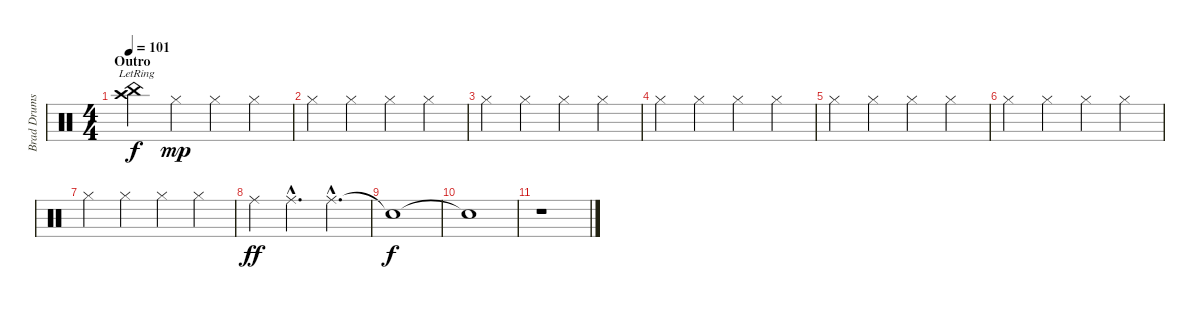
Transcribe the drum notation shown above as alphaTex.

\track ("Brad Drums" "Brad Drums") {instrument percussion}
\staff {score}
\articulation defaults
\ts (4 4)
\section ("" "Outro")
\tempo 101
\clef neutral
\ks c
("Crash high (hit)"{lr} "China (hit)"{lr}).4{dy f} "Hi-Hat (closed)".4{dy mp} "Hi-Hat (closed)".4 "Hi-Hat (closed)".4 |
"Hi-Hat (closed)".4 "Hi-Hat (closed)".4 "Hi-Hat (closed)".4 "Hi-Hat (closed)".4 |
"Hi-Hat (closed)".4 "Hi-Hat (closed)".4 "Hi-Hat (closed)".4 "Hi-Hat (closed)".4 |
"Hi-Hat (closed)".4 "Hi-Hat (closed)".4 "Hi-Hat (closed)".4 "Hi-Hat (closed)".4 |
"Hi-Hat (closed)".4 "Hi-Hat (closed)".4 "Hi-Hat (closed)".4 "Hi-Hat (closed)".4 |
"Hi-Hat (closed)".4 "Hi-Hat (closed)".4 "Hi-Hat (closed)".4 "Hi-Hat (closed)".4 |
"Hi-Hat (closed)".4 "Hi-Hat (closed)".4 "Hi-Hat (closed)".4 "Hi-Hat (closed)".4 |
"Ride (middle)".4{dy ff} "Ride (middle)"{hac}.4{d} "Ride (middle)"{hac}.4{d} |
"Snare (hit)"{t}.1{dy f} |
"Snare (hit)"{t}.1 |
r.1
